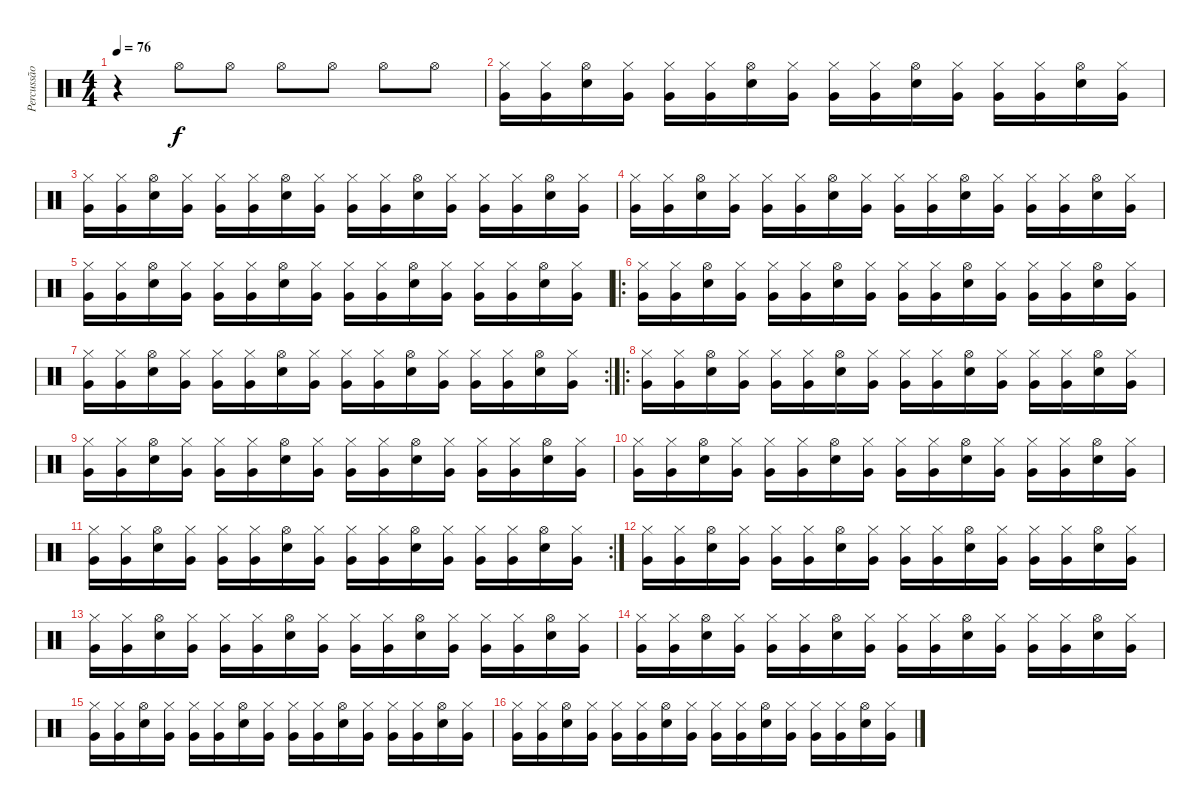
\track ("Percussão" "Percussão") {instrument percussion}
\staff {score}
\articulation defaults
\ts (4 4)
\tempo 76
\clef neutral
\ks c
r.4{dy f} "Hi-Hat (open)".8 "Hi-Hat (open)".8 "Hi-Hat (open)".8 "Hi-Hat (open)".8 "Hi-Hat (open)".8 "Hi-Hat (open)".8 |
("Very Low Tom (hit)" "Hi-Hat (closed)").16 ("Very Low Tom (hit)" "Hi-Hat (closed)").16 ("Snare (hit) 2" "Hi-Hat (open)").16 ("Very Low Tom (hit)" "Hi-Hat (closed)").16 ("Very Low Tom (hit)" "Hi-Hat (closed)").16 ("Very Low Tom (hit)" "Hi-Hat (closed)").16 ("Snare (hit) 2" "Hi-Hat (open)").16 ("Very Low Tom (hit)" "Hi-Hat (closed)").16 ("Very Low Tom (hit)" "Hi-Hat (closed)").16 ("Very Low Tom (hit)" "Hi-Hat (closed)").16 ("Snare (hit) 2" "Hi-Hat (open)").16 ("Very Low Tom (hit)" "Hi-Hat (closed)").16 ("Very Low Tom (hit)" "Hi-Hat (closed)").16 ("Very Low Tom (hit)" "Hi-Hat (closed)").16 ("Snare (hit) 2" "Hi-Hat (open)").16 ("Very Low Tom (hit)" "Hi-Hat (closed)").16 |
("Very Low Tom (hit)" "Hi-Hat (closed)").16 ("Very Low Tom (hit)" "Hi-Hat (closed)").16 ("Snare (hit) 2" "Hi-Hat (open)").16 ("Very Low Tom (hit)" "Hi-Hat (closed)").16 ("Very Low Tom (hit)" "Hi-Hat (closed)").16 ("Very Low Tom (hit)" "Hi-Hat (closed)").16 ("Snare (hit) 2" "Hi-Hat (open)").16 ("Very Low Tom (hit)" "Hi-Hat (closed)").16 ("Very Low Tom (hit)" "Hi-Hat (closed)").16 ("Very Low Tom (hit)" "Hi-Hat (closed)").16 ("Snare (hit) 2" "Hi-Hat (open)").16 ("Very Low Tom (hit)" "Hi-Hat (closed)").16 ("Very Low Tom (hit)" "Hi-Hat (closed)").16 ("Very Low Tom (hit)" "Hi-Hat (closed)").16 ("Snare (hit) 2" "Hi-Hat (open)").16 ("Very Low Tom (hit)" "Hi-Hat (closed)").16 |
("Very Low Tom (hit)" "Hi-Hat (closed)").16 ("Very Low Tom (hit)" "Hi-Hat (closed)").16 ("Snare (hit) 2" "Hi-Hat (open)").16 ("Very Low Tom (hit)" "Hi-Hat (closed)").16 ("Very Low Tom (hit)" "Hi-Hat (closed)").16 ("Very Low Tom (hit)" "Hi-Hat (closed)").16 ("Snare (hit) 2" "Hi-Hat (open)").16 ("Very Low Tom (hit)" "Hi-Hat (closed)").16 ("Very Low Tom (hit)" "Hi-Hat (closed)").16 ("Very Low Tom (hit)" "Hi-Hat (closed)").16 ("Snare (hit) 2" "Hi-Hat (open)").16 ("Very Low Tom (hit)" "Hi-Hat (closed)").16 ("Very Low Tom (hit)" "Hi-Hat (closed)").16 ("Very Low Tom (hit)" "Hi-Hat (closed)").16 ("Snare (hit) 2" "Hi-Hat (open)").16 ("Very Low Tom (hit)" "Hi-Hat (closed)").16 |
("Very Low Tom (hit)" "Hi-Hat (closed)").16 ("Very Low Tom (hit)" "Hi-Hat (closed)").16 ("Snare (hit) 2" "Hi-Hat (open)").16 ("Very Low Tom (hit)" "Hi-Hat (closed)").16 ("Very Low Tom (hit)" "Hi-Hat (closed)").16 ("Very Low Tom (hit)" "Hi-Hat (closed)").16 ("Snare (hit) 2" "Hi-Hat (open)").16 ("Very Low Tom (hit)" "Hi-Hat (closed)").16 ("Very Low Tom (hit)" "Hi-Hat (closed)").16 ("Very Low Tom (hit)" "Hi-Hat (closed)").16 ("Snare (hit) 2" "Hi-Hat (open)").16 ("Very Low Tom (hit)" "Hi-Hat (closed)").16 ("Very Low Tom (hit)" "Hi-Hat (closed)").16 ("Very Low Tom (hit)" "Hi-Hat (closed)").16 ("Snare (hit) 2" "Hi-Hat (open)").16 ("Very Low Tom (hit)" "Hi-Hat (closed)").16 |
\ro
("Very Low Tom (hit)" "Hi-Hat (closed)").16 ("Very Low Tom (hit)" "Hi-Hat (closed)").16 ("Snare (hit) 2" "Hi-Hat (open)").16 ("Very Low Tom (hit)" "Hi-Hat (closed)").16 ("Very Low Tom (hit)" "Hi-Hat (closed)").16 ("Very Low Tom (hit)" "Hi-Hat (closed)").16 ("Snare (hit) 2" "Hi-Hat (open)").16 ("Very Low Tom (hit)" "Hi-Hat (closed)").16 ("Very Low Tom (hit)" "Hi-Hat (closed)").16 ("Very Low Tom (hit)" "Hi-Hat (closed)").16 ("Snare (hit) 2" "Hi-Hat (open)").16 ("Very Low Tom (hit)" "Hi-Hat (closed)").16 ("Very Low Tom (hit)" "Hi-Hat (closed)").16 ("Very Low Tom (hit)" "Hi-Hat (closed)").16 ("Snare (hit) 2" "Hi-Hat (open)").16 ("Very Low Tom (hit)" "Hi-Hat (closed)").16 |
\rc 2
("Very Low Tom (hit)" "Hi-Hat (closed)").16 ("Very Low Tom (hit)" "Hi-Hat (closed)").16 ("Snare (hit) 2" "Hi-Hat (open)").16 ("Very Low Tom (hit)" "Hi-Hat (closed)").16 ("Very Low Tom (hit)" "Hi-Hat (closed)").16 ("Very Low Tom (hit)" "Hi-Hat (closed)").16 ("Snare (hit) 2" "Hi-Hat (open)").16 ("Very Low Tom (hit)" "Hi-Hat (closed)").16 ("Very Low Tom (hit)" "Hi-Hat (closed)").16 ("Very Low Tom (hit)" "Hi-Hat (closed)").16 ("Snare (hit) 2" "Hi-Hat (open)").16 ("Very Low Tom (hit)" "Hi-Hat (closed)").16 ("Very Low Tom (hit)" "Hi-Hat (closed)").16 ("Very Low Tom (hit)" "Hi-Hat (closed)").16 ("Snare (hit) 2" "Hi-Hat (open)").16 ("Very Low Tom (hit)" "Hi-Hat (closed)").16 |
\ro
("Very Low Tom (hit)" "Hi-Hat (closed)").16 ("Very Low Tom (hit)" "Hi-Hat (closed)").16 ("Snare (hit) 2" "Hi-Hat (open)").16 ("Very Low Tom (hit)" "Hi-Hat (closed)").16 ("Very Low Tom (hit)" "Hi-Hat (closed)").16 ("Very Low Tom (hit)" "Hi-Hat (closed)").16 ("Snare (hit) 2" "Hi-Hat (open)").16 ("Very Low Tom (hit)" "Hi-Hat (closed)").16 ("Very Low Tom (hit)" "Hi-Hat (closed)").16 ("Very Low Tom (hit)" "Hi-Hat (closed)").16 ("Snare (hit) 2" "Hi-Hat (open)").16 ("Very Low Tom (hit)" "Hi-Hat (closed)").16 ("Very Low Tom (hit)" "Hi-Hat (closed)").16 ("Very Low Tom (hit)" "Hi-Hat (closed)").16 ("Snare (hit) 2" "Hi-Hat (open)").16 ("Very Low Tom (hit)" "Hi-Hat (closed)").16 |
("Very Low Tom (hit)" "Hi-Hat (closed)").16 ("Very Low Tom (hit)" "Hi-Hat (closed)").16 ("Snare (hit) 2" "Hi-Hat (open)").16 ("Very Low Tom (hit)" "Hi-Hat (closed)").16 ("Very Low Tom (hit)" "Hi-Hat (closed)").16 ("Very Low Tom (hit)" "Hi-Hat (closed)").16 ("Snare (hit) 2" "Hi-Hat (open)").16 ("Very Low Tom (hit)" "Hi-Hat (closed)").16 ("Very Low Tom (hit)" "Hi-Hat (closed)").16 ("Very Low Tom (hit)" "Hi-Hat (closed)").16 ("Snare (hit) 2" "Hi-Hat (open)").16 ("Very Low Tom (hit)" "Hi-Hat (closed)").16 ("Very Low Tom (hit)" "Hi-Hat (closed)").16 ("Very Low Tom (hit)" "Hi-Hat (closed)").16 ("Snare (hit) 2" "Hi-Hat (open)").16 ("Very Low Tom (hit)" "Hi-Hat (closed)").16 |
("Very Low Tom (hit)" "Hi-Hat (closed)").16 ("Very Low Tom (hit)" "Hi-Hat (closed)").16 ("Snare (hit) 2" "Hi-Hat (open)").16 ("Very Low Tom (hit)" "Hi-Hat (closed)").16 ("Very Low Tom (hit)" "Hi-Hat (closed)").16 ("Very Low Tom (hit)" "Hi-Hat (closed)").16 ("Snare (hit) 2" "Hi-Hat (open)").16 ("Very Low Tom (hit)" "Hi-Hat (closed)").16 ("Very Low Tom (hit)" "Hi-Hat (closed)").16 ("Very Low Tom (hit)" "Hi-Hat (closed)").16 ("Snare (hit) 2" "Hi-Hat (open)").16 ("Very Low Tom (hit)" "Hi-Hat (closed)").16 ("Very Low Tom (hit)" "Hi-Hat (closed)").16 ("Very Low Tom (hit)" "Hi-Hat (closed)").16 ("Snare (hit) 2" "Hi-Hat (open)").16 ("Very Low Tom (hit)" "Hi-Hat (closed)").16 |
\rc 2
("Very Low Tom (hit)" "Hi-Hat (closed)").16 ("Very Low Tom (hit)" "Hi-Hat (closed)").16 ("Snare (hit) 2" "Hi-Hat (open)").16 ("Very Low Tom (hit)" "Hi-Hat (closed)").16 ("Very Low Tom (hit)" "Hi-Hat (closed)").16 ("Very Low Tom (hit)" "Hi-Hat (closed)").16 ("Snare (hit) 2" "Hi-Hat (open)").16 ("Very Low Tom (hit)" "Hi-Hat (closed)").16 ("Very Low Tom (hit)" "Hi-Hat (closed)").16 ("Very Low Tom (hit)" "Hi-Hat (closed)").16 ("Snare (hit) 2" "Hi-Hat (open)").16 ("Very Low Tom (hit)" "Hi-Hat (closed)").16 ("Very Low Tom (hit)" "Hi-Hat (closed)").16 ("Very Low Tom (hit)" "Hi-Hat (closed)").16 ("Snare (hit) 2" "Hi-Hat (open)").16 ("Very Low Tom (hit)" "Hi-Hat (closed)").16 |
("Very Low Tom (hit)" "Hi-Hat (closed)").16 ("Very Low Tom (hit)" "Hi-Hat (closed)").16 ("Snare (hit) 2" "Hi-Hat (open)").16 ("Very Low Tom (hit)" "Hi-Hat (closed)").16 ("Very Low Tom (hit)" "Hi-Hat (closed)").16 ("Very Low Tom (hit)" "Hi-Hat (closed)").16 ("Snare (hit) 2" "Hi-Hat (open)").16 ("Very Low Tom (hit)" "Hi-Hat (closed)").16 ("Very Low Tom (hit)" "Hi-Hat (closed)").16 ("Very Low Tom (hit)" "Hi-Hat (closed)").16 ("Snare (hit) 2" "Hi-Hat (open)").16 ("Very Low Tom (hit)" "Hi-Hat (closed)").16 ("Very Low Tom (hit)" "Hi-Hat (closed)").16 ("Very Low Tom (hit)" "Hi-Hat (closed)").16 ("Snare (hit) 2" "Hi-Hat (open)").16 ("Very Low Tom (hit)" "Hi-Hat (closed)").16 |
("Very Low Tom (hit)" "Hi-Hat (closed)").16 ("Very Low Tom (hit)" "Hi-Hat (closed)").16 ("Snare (hit) 2" "Hi-Hat (open)").16 ("Very Low Tom (hit)" "Hi-Hat (closed)").16 ("Very Low Tom (hit)" "Hi-Hat (closed)").16 ("Very Low Tom (hit)" "Hi-Hat (closed)").16 ("Snare (hit) 2" "Hi-Hat (open)").16 ("Very Low Tom (hit)" "Hi-Hat (closed)").16 ("Very Low Tom (hit)" "Hi-Hat (closed)").16 ("Very Low Tom (hit)" "Hi-Hat (closed)").16 ("Snare (hit) 2" "Hi-Hat (open)").16 ("Very Low Tom (hit)" "Hi-Hat (closed)").16 ("Very Low Tom (hit)" "Hi-Hat (closed)").16 ("Very Low Tom (hit)" "Hi-Hat (closed)").16 ("Snare (hit) 2" "Hi-Hat (open)").16 ("Very Low Tom (hit)" "Hi-Hat (closed)").16 |
("Very Low Tom (hit)" "Hi-Hat (closed)").16 ("Very Low Tom (hit)" "Hi-Hat (closed)").16 ("Snare (hit) 2" "Hi-Hat (open)").16 ("Very Low Tom (hit)" "Hi-Hat (closed)").16 ("Very Low Tom (hit)" "Hi-Hat (closed)").16 ("Very Low Tom (hit)" "Hi-Hat (closed)").16 ("Snare (hit) 2" "Hi-Hat (open)").16 ("Very Low Tom (hit)" "Hi-Hat (closed)").16 ("Very Low Tom (hit)" "Hi-Hat (closed)").16 ("Very Low Tom (hit)" "Hi-Hat (closed)").16 ("Snare (hit) 2" "Hi-Hat (open)").16 ("Very Low Tom (hit)" "Hi-Hat (closed)").16 ("Very Low Tom (hit)" "Hi-Hat (closed)").16 ("Very Low Tom (hit)" "Hi-Hat (closed)").16 ("Snare (hit) 2" "Hi-Hat (open)").16 ("Very Low Tom (hit)" "Hi-Hat (closed)").16 |
("Very Low Tom (hit)" "Hi-Hat (closed)").16 ("Very Low Tom (hit)" "Hi-Hat (closed)").16 ("Snare (hit) 2" "Hi-Hat (open)").16 ("Very Low Tom (hit)" "Hi-Hat (closed)").16 ("Very Low Tom (hit)" "Hi-Hat (closed)").16 ("Very Low Tom (hit)" "Hi-Hat (closed)").16 ("Snare (hit) 2" "Hi-Hat (open)").16 ("Very Low Tom (hit)" "Hi-Hat (closed)").16 ("Very Low Tom (hit)" "Hi-Hat (closed)").16 ("Very Low Tom (hit)" "Hi-Hat (closed)").16 ("Snare (hit) 2" "Hi-Hat (open)").16 ("Very Low Tom (hit)" "Hi-Hat (closed)").16 ("Very Low Tom (hit)" "Hi-Hat (closed)").16 ("Very Low Tom (hit)" "Hi-Hat (closed)").16 ("Snare (hit) 2" "Hi-Hat (open)").16 ("Very Low Tom (hit)" "Hi-Hat (closed)").16 |
("Very Low Tom (hit)" "Hi-Hat (closed)").16 ("Very Low Tom (hit)" "Hi-Hat (closed)").16 ("Snare (hit) 2" "Hi-Hat (open)").16 ("Very Low Tom (hit)" "Hi-Hat (closed)").16 ("Very Low Tom (hit)" "Hi-Hat (closed)").16 ("Very Low Tom (hit)" "Hi-Hat (closed)").16 ("Snare (hit) 2" "Hi-Hat (open)").16 ("Very Low Tom (hit)" "Hi-Hat (closed)").16 ("Very Low Tom (hit)" "Hi-Hat (closed)").16 ("Very Low Tom (hit)" "Hi-Hat (closed)").16 ("Snare (hit) 2" "Hi-Hat (open)").16 ("Very Low Tom (hit)" "Hi-Hat (closed)").16 ("Very Low Tom (hit)" "Hi-Hat (closed)").16 ("Very Low Tom (hit)" "Hi-Hat (closed)").16 ("Snare (hit) 2" "Hi-Hat (open)").16 ("Very Low Tom (hit)" "Hi-Hat (closed)").16
